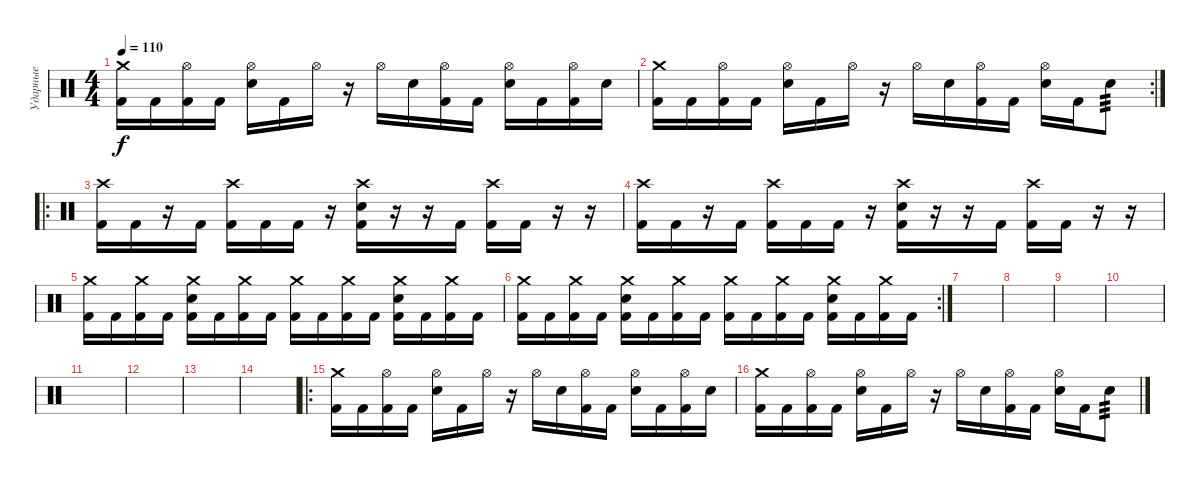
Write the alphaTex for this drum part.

\track ("Ударные" "Ударные") {instrument percussion}
\staff {score}
\articulation defaults
\ts (4 4)
\tempo 110
\clef neutral
\ks c
("Crash medium (hit)" "Kick (hit) 2").16{dy f} "Kick (hit) 2".16 ("Hi-Hat (open)" "Kick (hit) 2").16 "Kick (hit) 2".16 ("Hi-Hat (open)" "Electric Snare (hit)").16 "Kick (hit) 2".16 "Hi-Hat (open)".16 r.16 "Hi-Hat (open)".16 "Electric Snare (hit)".16 ("Hi-Hat (open)" "Kick (hit) 2").16 "Kick (hit) 2".16 ("Hi-Hat (open)" "Electric Snare (hit)").16 "Kick (hit) 2".16 ("Hi-Hat (open)" "Kick (hit) 2").16 "Electric Snare (hit)".16 |
\rc 2
("Crash medium (hit)" "Kick (hit) 2").16 "Kick (hit) 2".16 ("Hi-Hat (open)" "Kick (hit) 2").16 "Kick (hit) 2".16 ("Hi-Hat (open)" "Electric Snare (hit)").16 "Kick (hit) 2".16 "Hi-Hat (open)".16 r.16 "Hi-Hat (open)".16 "Electric Snare (hit)".16 ("Hi-Hat (open)" "Kick (hit) 2").16 "Kick (hit) 2".16 ("Hi-Hat (open)" "Electric Snare (hit)").16 "Kick (hit) 2".16 "Electric Snare (hit)".8{tp 3} |
\ro
("Crash high (hit)" "Kick (hit) 2").16 "Kick (hit) 2".16 r.16 "Kick (hit) 2".16 ("Crash high (hit)" "Kick (hit) 2").16 "Kick (hit) 2".16 "Kick (hit) 2".16 r.16 ("Crash high (hit)" "Electric Snare (hit)" "Kick (hit) 2").16 r.16 r.16 "Kick (hit) 2".16 ("Crash high (hit)" "Kick (hit) 2").16 "Kick (hit) 2".16 r.16 r.16 |
("Crash high (hit)" "Kick (hit) 2").16 "Kick (hit) 2".16 r.16 "Kick (hit) 2".16 ("Crash high (hit)" "Kick (hit) 2").16 "Kick (hit) 2".16 "Kick (hit) 2".16 r.16 ("Crash high (hit)" "Electric Snare (hit)" "Kick (hit) 2").16 r.16 r.16 "Kick (hit) 2".16 ("Crash high (hit)" "Kick (hit) 2").16 "Kick (hit) 2".16 r.16 r.16 |
("Crash medium (hit)" "Kick (hit) 2").16 "Kick (hit) 2".16 ("Crash medium (hit)" "Kick (hit) 2").16 "Kick (hit) 2".16 ("Crash medium (hit)" "Electric Snare (hit)" "Kick (hit) 2").16 "Kick (hit) 2".16 ("Crash medium (hit)" "Kick (hit) 2").16 "Kick (hit) 2".16 ("Crash medium (hit)" "Kick (hit) 2").16 "Kick (hit) 2".16 ("Crash medium (hit)" "Kick (hit) 2").16 "Kick (hit) 2".16 ("Crash medium (hit)" "Electric Snare (hit)" "Kick (hit) 2").16 "Kick (hit) 2".16 ("Crash medium (hit)" "Kick (hit) 2").16 "Kick (hit) 2".16 |
\rc 2
("Crash medium (hit)" "Kick (hit) 2").16 "Kick (hit) 2".16 ("Crash medium (hit)" "Kick (hit) 2").16 "Kick (hit) 2".16 ("Crash medium (hit)" "Electric Snare (hit)" "Kick (hit) 2").16 "Kick (hit) 2".16 ("Crash medium (hit)" "Kick (hit) 2").16 "Kick (hit) 2".16 ("Crash medium (hit)" "Kick (hit) 2").16 "Kick (hit) 2".16 ("Crash medium (hit)" "Kick (hit) 2").16 "Kick (hit) 2".16 ("Crash medium (hit)" "Electric Snare (hit)" "Kick (hit) 2").16 "Kick (hit) 2".16 ("Crash medium (hit)" "Kick (hit) 2").16 "Kick (hit) 2".16 |
|
|
|
|
|
|
|
|
\ro
("Crash medium (hit)" "Kick (hit) 2").16 "Kick (hit) 2".16 ("Hi-Hat (open)" "Kick (hit) 2").16 "Kick (hit) 2".16 ("Hi-Hat (open)" "Electric Snare (hit)").16 "Kick (hit) 2".16 "Hi-Hat (open)".16 r.16 "Hi-Hat (open)".16 "Electric Snare (hit)".16 ("Hi-Hat (open)" "Kick (hit) 2").16 "Kick (hit) 2".16 ("Hi-Hat (open)" "Electric Snare (hit)").16 "Kick (hit) 2".16 ("Hi-Hat (open)" "Kick (hit) 2").16 "Electric Snare (hit)".16 |
("Crash medium (hit)" "Kick (hit) 2").16 "Kick (hit) 2".16 ("Hi-Hat (open)" "Kick (hit) 2").16 "Kick (hit) 2".16 ("Hi-Hat (open)" "Electric Snare (hit)").16 "Kick (hit) 2".16 "Hi-Hat (open)".16 r.16 "Hi-Hat (open)".16 "Electric Snare (hit)".16 ("Hi-Hat (open)" "Kick (hit) 2").16 "Kick (hit) 2".16 ("Hi-Hat (open)" "Electric Snare (hit)").16 "Kick (hit) 2".16 "Electric Snare (hit)".8{tp 3}
